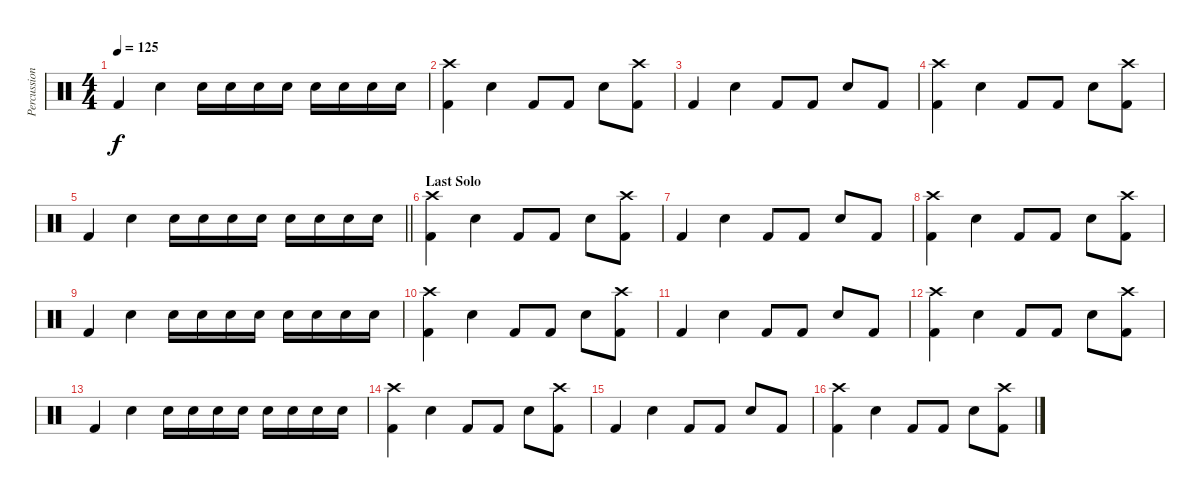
\track ("Percussion" "Percussion") {instrument percussion}
\staff {score}
\articulation defaults
\ts (4 4)
\tempo 125
\clef neutral
\ks c "Kick (hit) 2".4{dy f} "Snare (hit) 2".4 "Snare (hit) 2".16 "Snare (hit) 2".16 "Snare (hit) 2".16 "Snare (hit) 2".16 "Snare (hit) 2".16 "Snare (hit) 2".16 "Snare (hit) 2".16 "Snare (hit) 2".16
|
("Crash high (hit)" "Kick (hit) 2").4 "Snare (hit) 2".4 "Kick (hit) 2".8 "Kick (hit) 2".8 "Snare (hit) 2".8 ("Crash high (hit)" "Kick (hit) 2").8 |
"Kick (hit) 2".4 "Snare (hit) 2".4 "Kick (hit) 2".8 "Kick (hit) 2".8 "Snare (hit) 2".8 "Kick (hit) 2".8 |
("Crash high (hit)" "Kick (hit) 2").4 "Snare (hit) 2".4 "Kick (hit) 2".8 "Kick (hit) 2".8 "Snare (hit) 2".8 ("Crash high (hit)" "Kick (hit) 2").8 |
\barLineRight lightlight "Kick (hit) 2".4 "Snare (hit) 2".4 "Snare (hit) 2".16 "Snare (hit) 2".16 "Snare (hit) 2".16 "Snare (hit) 2".16 "Snare (hit) 2".16 "Snare (hit) 2".16 "Snare (hit) 2".16 "Snare (hit) 2".16
|
\section ("" "Last Solo")
("Crash high (hit)" "Kick (hit) 2").4 "Snare (hit) 2".4 "Kick (hit) 2".8 "Kick (hit) 2".8 "Snare (hit) 2".8 ("Crash high (hit)" "Kick (hit) 2").8 |
"Kick (hit) 2".4 "Snare (hit) 2".4 "Kick (hit) 2".8 "Kick (hit) 2".8 "Snare (hit) 2".8 "Kick (hit) 2".8 |
("Crash high (hit)" "Kick (hit) 2").4 "Snare (hit) 2".4 "Kick (hit) 2".8 "Kick (hit) 2".8 "Snare (hit) 2".8 ("Crash high (hit)" "Kick (hit) 2").8 |
"Kick (hit) 2".4 "Snare (hit) 2".4 "Snare (hit) 2".16 "Snare (hit) 2".16 "Snare (hit) 2".16 "Snare (hit) 2".16 "Snare (hit) 2".16 "Snare (hit) 2".16 "Snare (hit) 2".16 "Snare (hit) 2".16 |
("Crash high (hit)" "Kick (hit) 2").4 "Snare (hit) 2".4 "Kick (hit) 2".8 "Kick (hit) 2".8 "Snare (hit) 2".8 ("Crash high (hit)" "Kick (hit) 2").8 |
"Kick (hit) 2".4 "Snare (hit) 2".4 "Kick (hit) 2".8 "Kick (hit) 2".8 "Snare (hit) 2".8 "Kick (hit) 2".8 |
("Crash high (hit)" "Kick (hit) 2").4 "Snare (hit) 2".4 "Kick (hit) 2".8 "Kick (hit) 2".8 "Snare (hit) 2".8 ("Crash high (hit)" "Kick (hit) 2").8 |
"Kick (hit) 2".4 "Snare (hit) 2".4 "Snare (hit) 2".16 "Snare (hit) 2".16 "Snare (hit) 2".16 "Snare (hit) 2".16 "Snare (hit) 2".16 "Snare (hit) 2".16 "Snare (hit) 2".16 "Snare (hit) 2".16 |
("Crash high (hit)" "Kick (hit) 2").4 "Snare (hit) 2".4 "Kick (hit) 2".8 "Kick (hit) 2".8 "Snare (hit) 2".8 ("Crash high (hit)" "Kick (hit) 2").8 |
"Kick (hit) 2".4 "Snare (hit) 2".4 "Kick (hit) 2".8 "Kick (hit) 2".8 "Snare (hit) 2".8 "Kick (hit) 2".8 |
("Crash high (hit)" "Kick (hit) 2").4 "Snare (hit) 2".4 "Kick (hit) 2".8 "Kick (hit) 2".8 "Snare (hit) 2".8 ("Crash high (hit)" "Kick (hit) 2").8
